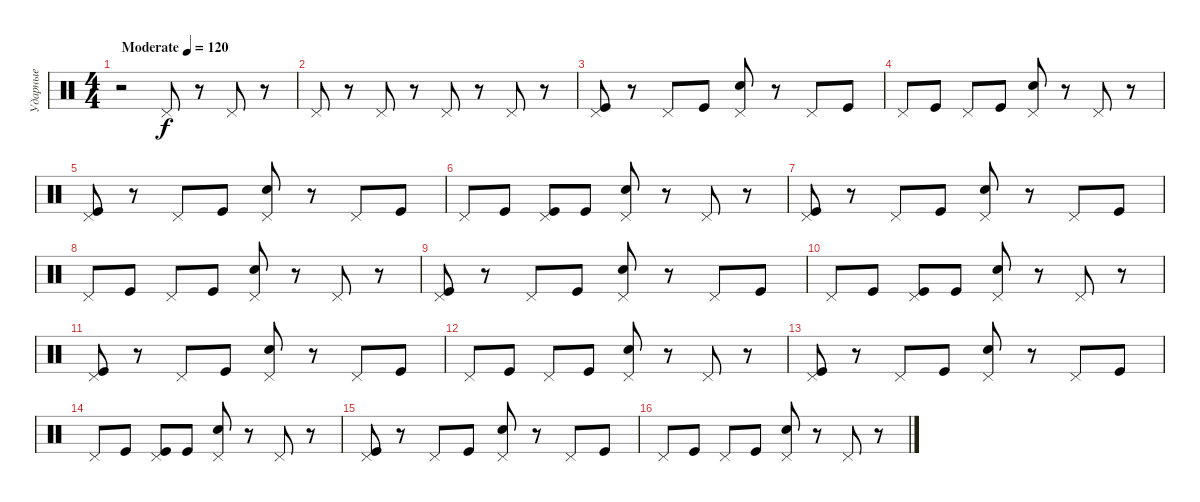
\track ("Ударные" "Ударные") {instrument percussion}
\staff {score}
\articulation defaults
\ts (4 4)
\tempo (120 "Moderate")
\clef neutral
\ks c
r.2{dy f} "Pedal Hi-Hat (hit)".8 r.8 "Pedal Hi-Hat (hit)".8 r.8 |
"Pedal Hi-Hat (hit)".8 r.8 "Pedal Hi-Hat (hit)".8 r.8 "Pedal Hi-Hat (hit)".8 r.8 "Pedal Hi-Hat (hit)".8 r.8 |
("Pedal Hi-Hat (hit)" "Kick (hit)").8 r.8 "Pedal Hi-Hat (hit)".8 "Kick (hit)".8 ("Pedal Hi-Hat (hit)" "Electric Snare (hit)").8 r.8 "Pedal Hi-Hat (hit)".8 "Kick (hit)".8 |
"Pedal Hi-Hat (hit)".8 "Kick (hit)".8 "Pedal Hi-Hat (hit)".8 "Kick (hit)".8 ("Pedal Hi-Hat (hit)" "Electric Snare (hit)").8 r.8 "Pedal Hi-Hat (hit)".8 r.8 |
("Pedal Hi-Hat (hit)" "Kick (hit)").8 r.8 "Pedal Hi-Hat (hit)".8 "Kick (hit)".8 ("Pedal Hi-Hat (hit)" "Electric Snare (hit)").8 r.8 "Pedal Hi-Hat (hit)".8 "Kick (hit)".8 |
"Pedal Hi-Hat (hit)".8 "Kick (hit)".8 ("Pedal Hi-Hat (hit)" "Kick (hit)").8 "Kick (hit)".8 ("Pedal Hi-Hat (hit)" "Electric Snare (hit)").8 r.8 "Pedal Hi-Hat (hit)".8 r.8 |
("Pedal Hi-Hat (hit)" "Kick (hit)").8 r.8 "Pedal Hi-Hat (hit)".8 "Kick (hit)".8 ("Pedal Hi-Hat (hit)" "Electric Snare (hit)").8 r.8 "Pedal Hi-Hat (hit)".8 "Kick (hit)".8 |
"Pedal Hi-Hat (hit)".8 "Kick (hit)".8 "Pedal Hi-Hat (hit)".8 "Kick (hit)".8 ("Pedal Hi-Hat (hit)" "Electric Snare (hit)").8 r.8 "Pedal Hi-Hat (hit)".8 r.8 |
("Pedal Hi-Hat (hit)" "Kick (hit)").8 r.8 "Pedal Hi-Hat (hit)".8 "Kick (hit)".8 ("Pedal Hi-Hat (hit)" "Electric Snare (hit)").8 r.8 "Pedal Hi-Hat (hit)".8 "Kick (hit)".8 |
"Pedal Hi-Hat (hit)".8 "Kick (hit)".8 ("Pedal Hi-Hat (hit)" "Kick (hit)").8 "Kick (hit)".8 ("Pedal Hi-Hat (hit)" "Electric Snare (hit)").8 r.8 "Pedal Hi-Hat (hit)".8 r.8 |
("Pedal Hi-Hat (hit)" "Kick (hit)").8 r.8 "Pedal Hi-Hat (hit)".8 "Kick (hit)".8 ("Pedal Hi-Hat (hit)" "Electric Snare (hit)").8 r.8 "Pedal Hi-Hat (hit)".8 "Kick (hit)".8 |
"Pedal Hi-Hat (hit)".8 "Kick (hit)".8 "Pedal Hi-Hat (hit)".8 "Kick (hit)".8 ("Pedal Hi-Hat (hit)" "Electric Snare (hit)").8 r.8 "Pedal Hi-Hat (hit)".8 r.8 |
("Pedal Hi-Hat (hit)" "Kick (hit)").8 r.8 "Pedal Hi-Hat (hit)".8 "Kick (hit)".8 ("Pedal Hi-Hat (hit)" "Electric Snare (hit)").8 r.8 "Pedal Hi-Hat (hit)".8 "Kick (hit)".8 |
"Pedal Hi-Hat (hit)".8 "Kick (hit)".8 ("Pedal Hi-Hat (hit)" "Kick (hit)").8 "Kick (hit)".8 ("Pedal Hi-Hat (hit)" "Electric Snare (hit)").8 r.8 "Pedal Hi-Hat (hit)".8 r.8 |
("Pedal Hi-Hat (hit)" "Kick (hit)").8 r.8 "Pedal Hi-Hat (hit)".8 "Kick (hit)".8 ("Pedal Hi-Hat (hit)" "Electric Snare (hit)").8 r.8 "Pedal Hi-Hat (hit)".8 "Kick (hit)".8 |
"Pedal Hi-Hat (hit)".8 "Kick (hit)".8 "Pedal Hi-Hat (hit)".8 "Kick (hit)".8 ("Pedal Hi-Hat (hit)" "Electric Snare (hit)").8 r.8 "Pedal Hi-Hat (hit)".8 r.8
